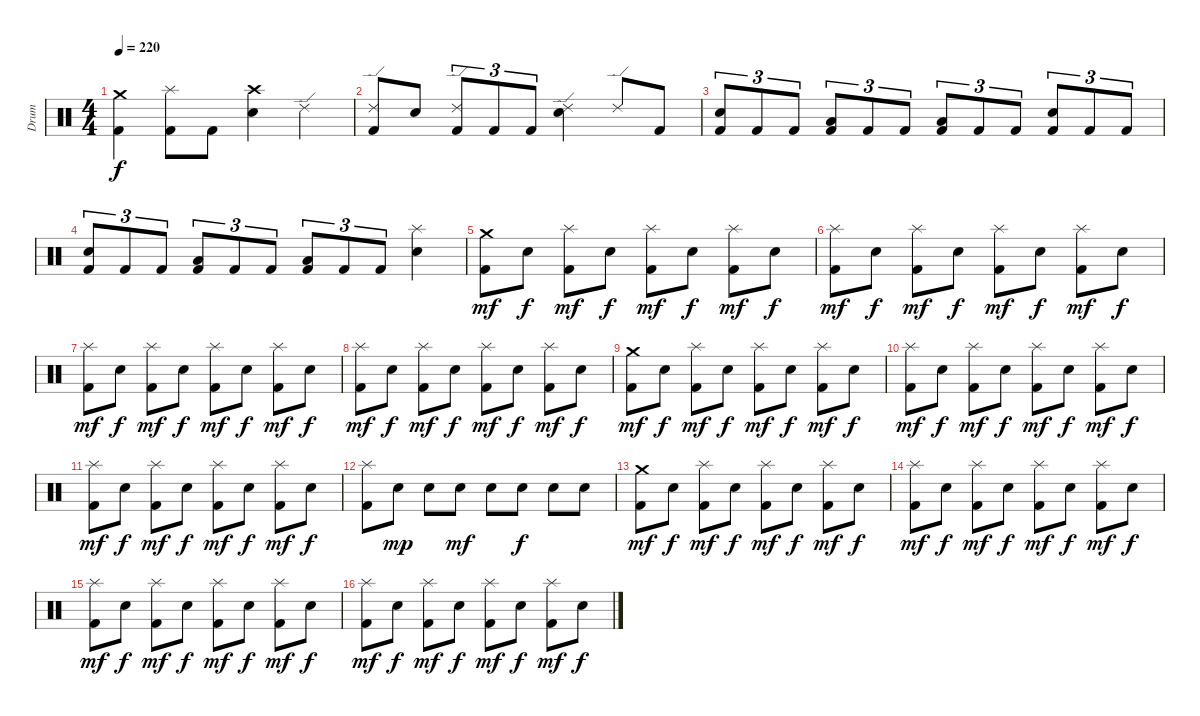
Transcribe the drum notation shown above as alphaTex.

\track ("Drum" "Drum") {instrument percussion}
\staff {score}
\articulation defaults
\ts (4 4)
\tempo 220
\clef neutral
\ks c
("Crash medium (hit)" "Kick (hit) 2").4{dy f} ("Splash (hit)" "Kick (hit) 2").8 "Kick (hit) 2".8 ("Crash high (hit)" "Electric Snare (hit)").4 "Ride (edge) 2".4 |
("Ride (edge) 2" "Kick (hit) 2").8 "Electric Snare (hit)".8 ("Ride (edge) 2" "Kick (hit) 2").8{tu (3 2)} "Kick (hit) 2".8{tu (3 2)} "Kick (hit) 2".8{tu (3 2)} ("Ride (edge) 2" "Electric Snare (hit)").4 "Ride (edge) 2".8 "Kick (hit) 2".8 |
("Electric Snare (hit)" "Kick (hit) 2").8{tu (3 2)} "Kick (hit) 2".8{tu (3 2)} "Kick (hit) 2".8{tu (3 2)} ("Low Tom (hit)" "Kick (hit) 2").8{tu (3 2)} "Kick (hit) 2".8{tu (3 2)} "Kick (hit) 2".8{tu (3 2)} ("Low Tom (hit)" "Kick (hit) 2").8{tu (3 2)} "Kick (hit) 2".8{tu (3 2)} "Kick (hit) 2".8{tu (3 2)} ("Electric Snare (hit)" "Kick (hit) 2").8{tu (3 2)} "Kick (hit) 2".8{tu (3 2)} "Kick (hit) 2".8{tu (3 2)} |
("Electric Snare (hit)" "Kick (hit) 2").8{tu (3 2)} "Kick (hit) 2".8{tu (3 2)} "Kick (hit) 2".8{tu (3 2)} ("Low Tom (hit)" "Kick (hit) 2").8{tu (3 2)} "Kick (hit) 2".8{tu (3 2)} "Kick (hit) 2".8{tu (3 2)} ("Low Tom (hit)" "Kick (hit) 2").8{tu (3 2)} "Kick (hit) 2".8{tu (3 2)} "Kick (hit) 2".8{tu (3 2)} ("Splash (hit)" "Electric Snare (hit)").4 |
("Crash medium (hit)" "Kick (hit) 2").8{dy mf} "Electric Snare (hit)".8{dy f} ("Splash (hit)" "Kick (hit) 2").8{dy mf} "Electric Snare (hit)".8{dy f} ("Splash (hit)" "Kick (hit) 2").8{dy mf} "Electric Snare (hit)".8{dy f} ("Splash (hit)" "Kick (hit) 2").8{dy mf} "Electric Snare (hit)".8{dy f} |
("Splash (hit)" "Kick (hit) 2").8{dy mf} "Electric Snare (hit)".8{dy f} ("Splash (hit)" "Kick (hit) 2").8{dy mf} "Electric Snare (hit)".8{dy f} ("Splash (hit)" "Kick (hit) 2").8{dy mf} "Electric Snare (hit)".8{dy f} ("Splash (hit)" "Kick (hit) 2").8{dy mf} "Electric Snare (hit)".8{dy f} |
("Splash (hit)" "Kick (hit) 2").8{dy mf} "Electric Snare (hit)".8{dy f} ("Splash (hit)" "Kick (hit) 2").8{dy mf} "Electric Snare (hit)".8{dy f} ("Splash (hit)" "Kick (hit) 2").8{dy mf} "Electric Snare (hit)".8{dy f} ("Splash (hit)" "Kick (hit) 2").8{dy mf} "Electric Snare (hit)".8{dy f} |
("Splash (hit)" "Kick (hit) 2").8{dy mf} "Electric Snare (hit)".8{dy f} ("Splash (hit)" "Kick (hit) 2").8{dy mf} "Electric Snare (hit)".8{dy f} ("Splash (hit)" "Kick (hit) 2").8{dy mf} "Electric Snare (hit)".8{dy f} ("Splash (hit)" "Kick (hit) 2").8{dy mf} "Electric Snare (hit)".8{dy f} |
("Crash medium (hit)" "Kick (hit) 2").8{dy mf} "Electric Snare (hit)".8{dy f} ("Splash (hit)" "Kick (hit) 2").8{dy mf} "Electric Snare (hit)".8{dy f} ("Splash (hit)" "Kick (hit) 2").8{dy mf} "Electric Snare (hit)".8{dy f} ("Splash (hit)" "Kick (hit) 2").8{dy mf} "Electric Snare (hit)".8{dy f} |
("Splash (hit)" "Kick (hit) 2").8{dy mf} "Electric Snare (hit)".8{dy f} ("Splash (hit)" "Kick (hit) 2").8{dy mf} "Electric Snare (hit)".8{dy f} ("Splash (hit)" "Kick (hit) 2").8{dy mf} "Electric Snare (hit)".8{dy f} ("Splash (hit)" "Kick (hit) 2").8{dy mf} "Electric Snare (hit)".8{dy f} |
("Splash (hit)" "Kick (hit) 2").8{dy mf} "Electric Snare (hit)".8{dy f} ("Splash (hit)" "Kick (hit) 2").8{dy mf} "Electric Snare (hit)".8{dy f} ("Splash (hit)" "Kick (hit) 2").8{dy mf} "Electric Snare (hit)".8{dy f} ("Splash (hit)" "Kick (hit) 2").8{dy mf} "Electric Snare (hit)".8{dy f} |
("Splash (hit)" "Kick (hit) 2").8 "Electric Snare (hit)".8{dy mp} "Electric Snare (hit)".8 "Electric Snare (hit)".8{dy mf} "Electric Snare (hit)".8 "Electric Snare (hit)".8{dy f} "Electric Snare (hit)".8 "Electric Snare (hit)".8 |
("Crash medium (hit)" "Kick (hit) 2").8{dy mf} "Electric Snare (hit)".8{dy f} ("Splash (hit)" "Kick (hit) 2").8{dy mf} "Electric Snare (hit)".8{dy f} ("Splash (hit)" "Kick (hit) 2").8{dy mf} "Electric Snare (hit)".8{dy f} ("Splash (hit)" "Kick (hit) 2").8{dy mf} "Electric Snare (hit)".8{dy f} |
("Splash (hit)" "Kick (hit) 2").8{dy mf} "Electric Snare (hit)".8{dy f} ("Splash (hit)" "Kick (hit) 2").8{dy mf} "Electric Snare (hit)".8{dy f} ("Splash (hit)" "Kick (hit) 2").8{dy mf} "Electric Snare (hit)".8{dy f} ("Splash (hit)" "Kick (hit) 2").8{dy mf} "Electric Snare (hit)".8{dy f} |
("Splash (hit)" "Kick (hit) 2").8{dy mf} "Electric Snare (hit)".8{dy f} ("Splash (hit)" "Kick (hit) 2").8{dy mf} "Electric Snare (hit)".8{dy f} ("Splash (hit)" "Kick (hit) 2").8{dy mf} "Electric Snare (hit)".8{dy f} ("Splash (hit)" "Kick (hit) 2").8{dy mf} "Electric Snare (hit)".8{dy f} |
("Splash (hit)" "Kick (hit) 2").8{dy mf} "Electric Snare (hit)".8{dy f} ("Splash (hit)" "Kick (hit) 2").8{dy mf} "Electric Snare (hit)".8{dy f} ("Splash (hit)" "Kick (hit) 2").8{dy mf} "Electric Snare (hit)".8{dy f} ("Splash (hit)" "Kick (hit) 2").8{dy mf} "Electric Snare (hit)".8{dy f}
